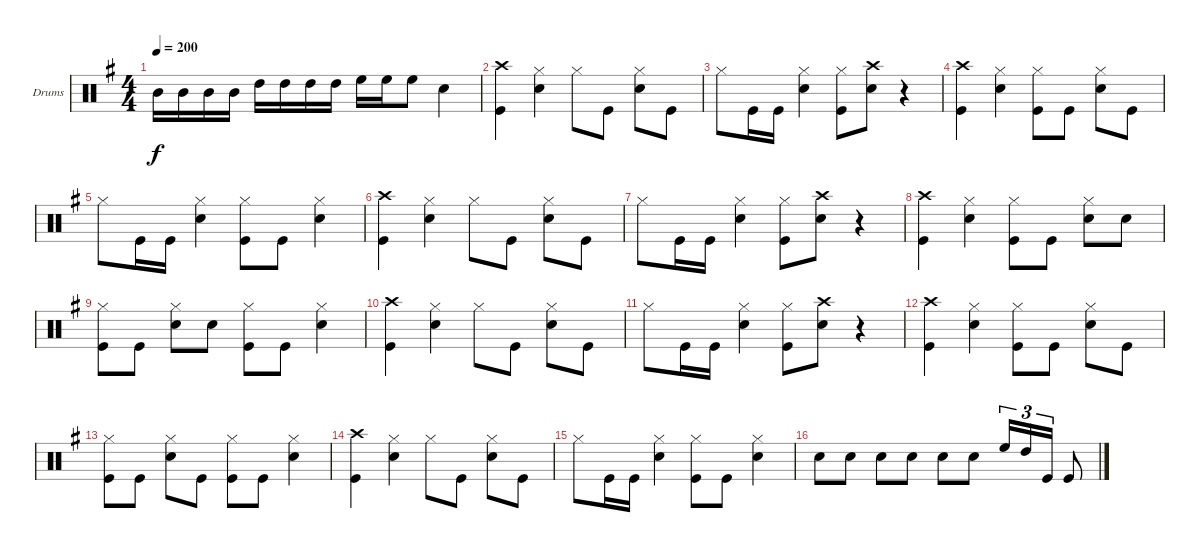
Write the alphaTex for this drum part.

\bracketExtendMode groupsimilarinstruments
\firstSystemTrackNameOrientation horizontal
\otherSystemsTrackNameOrientation horizontal
\track ("Drumkit" "Drums") {instrument percussion}
\staff {score}
\articulation defaults
\ts (4 4)
\tempo 200
\clef neutral
\ks g "Mid Tom (hit)".16{dy f} "Mid Tom (hit)".16 "Mid Tom (hit)".16 "Mid Tom (hit)".16 "High Tom (hit)".16 "High Tom (hit)".16 "High Tom (hit)".16 "High Tom (hit)".16 "High Floor Tom (hit)".16 "High Floor Tom (hit)".16 "High Floor Tom (hit)".8 "Snare (hit) 2".4
|
("Kick (hit)" "Crash high (hit)").4 ("Hi-Hat (closed)" "Snare (hit) 2").4 "Hi-Hat (closed)".8 "Kick (hit)".8 ("Snare (hit) 2" "Hi-Hat (closed)").8 "Kick (hit)".8 |
"Hi-Hat (closed)".8 "Kick (hit)".16 "Kick (hit)".16 ("Snare (hit) 2" "Hi-Hat (closed)").4 ("Hi-Hat (closed)" "Kick (hit)").8 ("Crash high (hit)" "Snare (hit) 2").8 r.4 |
("Kick (hit)" "Crash high (hit)").4 ("Hi-Hat (closed)" "Snare (hit) 2").4 ("Hi-Hat (closed)" "Kick (hit)").8 "Kick (hit)".8 ("Snare (hit) 2" "Hi-Hat (closed)").8 "Kick (hit)".8 |
"Hi-Hat (closed)".8 "Kick (hit)".16 "Kick (hit)".16 ("Snare (hit) 2" "Hi-Hat (closed)").4 ("Hi-Hat (closed)" "Kick (hit)").8 "Kick (hit)".8 ("Snare (hit) 2" "Hi-Hat (closed)").4 |
("Kick (hit)" "Crash high (hit)").4 ("Hi-Hat (closed)" "Snare (hit) 2").4 "Hi-Hat (closed)".8 "Kick (hit)".8 ("Snare (hit) 2" "Hi-Hat (closed)").8 "Kick (hit)".8 |
"Hi-Hat (closed)".8 "Kick (hit)".16 "Kick (hit)".16 ("Snare (hit) 2" "Hi-Hat (closed)").4 ("Hi-Hat (closed)" "Kick (hit)").8 ("Crash high (hit)" "Snare (hit) 2").8 r.4 |
("Crash high (hit)" "Kick (hit)").4 ("Snare (hit) 2" "Hi-Hat (closed)").4 ("Hi-Hat (closed)" "Kick (hit)").8 "Kick (hit)".8 ("Hi-Hat (closed)" "Snare (hit) 2").8 "Snare (hit) 2".8 |
("Kick (hit)" "Hi-Hat (closed)").8 "Kick (hit)".8 ("Snare (hit) 2" "Hi-Hat (closed)").8 "Snare (hit) 2".8 ("Kick (hit)" "Hi-Hat (closed)").8 "Kick (hit)".8 ("Snare (hit) 2" "Hi-Hat (closed)").4 |
("Kick (hit)" "Crash high (hit)").4 ("Hi-Hat (closed)" "Snare (hit) 2").4 "Hi-Hat (closed)".8 "Kick (hit)".8 ("Snare (hit) 2" "Hi-Hat (closed)").8 "Kick (hit)".8 |
"Hi-Hat (closed)".8 "Kick (hit)".16 "Kick (hit)".16 ("Snare (hit) 2" "Hi-Hat (closed)").4 ("Kick (hit)" "Hi-Hat (closed)").8 ("Crash high (hit)" "Snare (hit) 2").8 r.4 |
("Kick (hit)" "Crash high (hit)").4 ("Hi-Hat (closed)" "Snare (hit) 2").4 ("Kick (hit)" "Hi-Hat (closed)").8 "Kick (hit)".8 ("Snare (hit) 2" "Hi-Hat (closed)").8 "Kick (hit)".8 |
("Hi-Hat (closed)" "Kick (hit)").8 "Kick (hit)".8 ("Snare (hit) 2" "Hi-Hat (closed)").8 "Kick (hit)".8 ("Hi-Hat (closed)" "Kick (hit)").8 "Kick (hit)".8 ("Snare (hit) 2" "Hi-Hat (closed)").4 |
("Kick (hit)" "Crash high (hit)").4 ("Hi-Hat (closed)" "Snare (hit) 2").4 "Hi-Hat (closed)".8 "Kick (hit)".8 ("Snare (hit) 2" "Hi-Hat (closed)").8 "Kick (hit)".8 |
"Hi-Hat (closed)".8 "Kick (hit)".16 "Kick (hit)".16 ("Snare (hit) 2" "Hi-Hat (closed)").4 ("Kick (hit)" "Hi-Hat (closed)").8 "Kick (hit)".8 ("Snare (hit) 2" "Hi-Hat (closed)").4 |
"Snare (hit) 2".8 "Snare (hit) 2".8 "Snare (hit) 2".8 "Snare (hit) 2".8 "Snare (hit) 2".8 "Snare (hit) 2".8 "High Floor Tom (hit)".16{tu (3 2)} "High Tom (hit)".16{tu (3 2)} "Kick (hit)".16{tu (3 2)} "Kick (hit)".8
